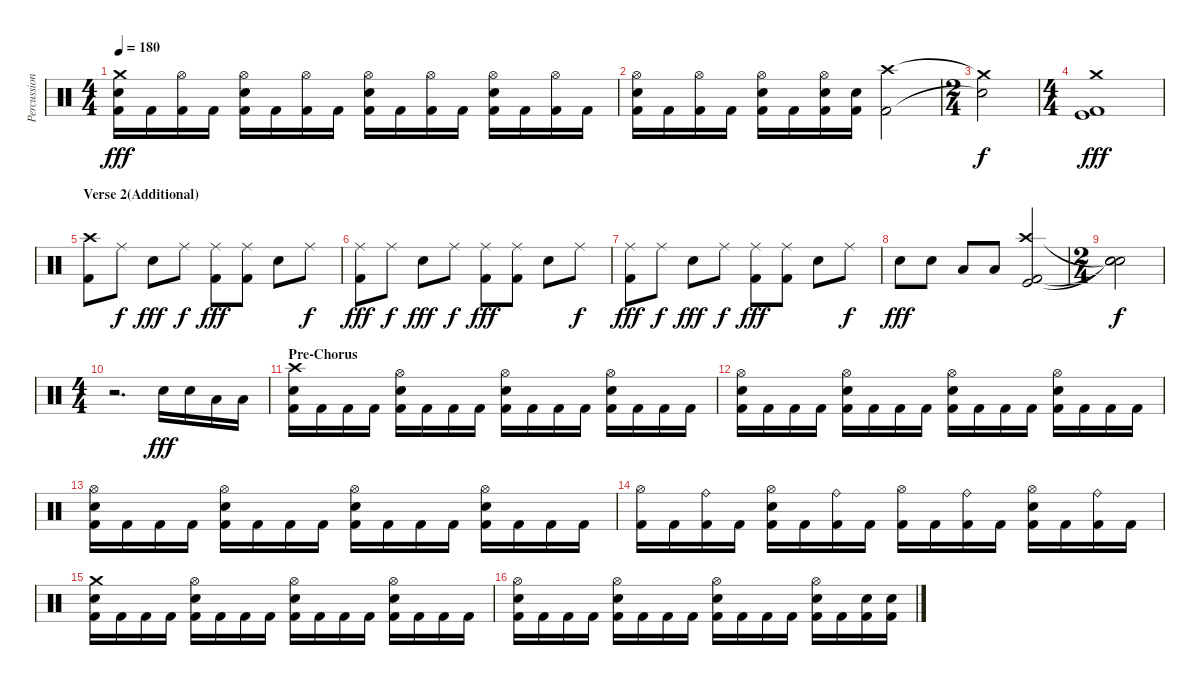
\track ("Percussion" "Percussion") {instrument percussion}
\staff {score}
\articulation defaults
\ts (4 4)
\tempo 180
\clef neutral
\ks c
("Crash medium (hit)" "Snare (hit) 2" "Kick (hit) 2").16{dy fff} "Kick (hit) 2".16 ("Hi-Hat (open)" "Kick (hit) 2").16 "Kick (hit) 2".16 ("Hi-Hat (open)" "Snare (hit) 2" "Kick (hit) 2").16 "Kick (hit) 2".16 ("Hi-Hat (open)" "Kick (hit) 2").16 "Kick (hit) 2".16 ("Hi-Hat (open)" "Snare (hit) 2" "Kick (hit) 2").16 "Kick (hit) 2".16 ("Hi-Hat (open)" "Kick (hit) 2").16 "Kick (hit) 2".16 ("Hi-Hat (open)" "Snare (hit) 2" "Kick (hit) 2").16 "Kick (hit) 2".16 ("Hi-Hat (open)" "Kick (hit) 2").16 "Kick (hit) 2".16 |
("Hi-Hat (open)" "Snare (hit) 2" "Kick (hit) 2").16 "Kick (hit) 2".16 ("Hi-Hat (open)" "Kick (hit) 2").16 "Kick (hit) 2".16 ("Hi-Hat (open)" "Snare (hit) 2" "Kick (hit) 2").16 "Kick (hit) 2".16 ("Hi-Hat (open)" "Snare (hit) 2" "Kick (hit) 2").16 ("Snare (hit) 2" "Kick (hit) 2").16 ("Crash high (hit)" "Kick (hit) 2").2 |
\ts (2 4)
("Crash medium (hit)"{t} "Snare (hit)"{t}).2{dy f} |
\ts (4 4)
("Crash medium (hit)" "Kick (hit)" "Kick (hit) 2").1{dy fff} |
\section ("" "Verse 2(Additional)")
("Crash high (hit)" "Kick (hit) 2").8 "Ride (middle)".8{dy f} "Snare (hit) 2".8{dy fff} "Ride (middle)".8{dy f} ("Ride (middle)" "Kick (hit) 2").8{dy fff} ("Ride (middle)" "Kick (hit) 2").8 "Snare (hit) 2".8 "Ride (middle)".8{dy f} |
("Ride (middle)" "Kick (hit) 2").8{dy fff} "Ride (middle)".8{dy f} "Snare (hit) 2".8{dy fff} "Ride (middle)".8{dy f} ("Ride (middle)" "Kick (hit) 2").8{dy fff} ("Ride (middle)" "Kick (hit) 2").8 "Snare (hit) 2".8 "Ride (middle)".8{dy f} |
("Ride (middle)" "Kick (hit) 2").8{dy fff} "Ride (middle)".8{dy f} "Snare (hit) 2".8{dy fff} "Ride (middle)".8{dy f} ("Ride (middle)" "Kick (hit) 2").8{dy fff} ("Ride (middle)" "Kick (hit) 2").8 "Snare (hit) 2".8 "Ride (middle)".8{dy f} |
"Snare (hit) 2".8{dy fff} "Snare (hit) 2".8 "Low Tom (hit)".8 "Low Tom (hit)".8 ("Crash high (hit)" "Kick (hit)" "Kick (hit) 2").2 |
\ts (2 4)
("Snare (hit)"{t} "Snare (hit)"{t} "Snare (hit)"{t}).2{dy f} |
\ts (4 4)
r.2{d} "Snare (hit) 2".16{dy fff} "Snare (hit) 2".16 "Low Tom (hit)".16 "Low Tom (hit)".16 |
\section ("" "Pre-Chorus")
("Crash high (hit)" "Snare (hit) 2" "Kick (hit) 2").16 "Kick (hit) 2".16 "Kick (hit) 2".16 "Kick (hit) 2".16 ("Hi-Hat (open)" "Snare (hit) 2" "Kick (hit) 2").16 "Kick (hit) 2".16 "Kick (hit) 2".16 "Kick (hit) 2".16 ("Hi-Hat (open)" "Snare (hit) 2" "Kick (hit) 2").16 "Kick (hit) 2".16 "Kick (hit) 2".16 "Kick (hit) 2".16 ("Hi-Hat (open)" "Snare (hit) 2" "Kick (hit) 2").16 "Kick (hit) 2".16 "Kick (hit) 2".16 "Kick (hit) 2".16 |
("Hi-Hat (open)" "Snare (hit) 2" "Kick (hit) 2").16 "Kick (hit) 2".16 "Kick (hit) 2".16 "Kick (hit) 2".16 ("Hi-Hat (open)" "Snare (hit) 2" "Kick (hit) 2").16 "Kick (hit) 2".16 "Kick (hit) 2".16 "Kick (hit) 2".16 ("Hi-Hat (open)" "Snare (hit) 2" "Kick (hit) 2").16 "Kick (hit) 2".16 "Kick (hit) 2".16 "Kick (hit) 2".16 ("Hi-Hat (open)" "Snare (hit) 2" "Kick (hit) 2").16 "Kick (hit) 2".16 "Kick (hit) 2".16 "Kick (hit) 2".16 |
("Hi-Hat (open)" "Snare (hit) 2" "Kick (hit) 2").16 "Kick (hit) 2".16 "Kick (hit) 2".16 "Kick (hit) 2".16 ("Hi-Hat (open)" "Snare (hit) 2" "Kick (hit) 2").16 "Kick (hit) 2".16 "Kick (hit) 2".16 "Kick (hit) 2".16 ("Hi-Hat (open)" "Snare (hit) 2" "Kick (hit) 2").16 "Kick (hit) 2".16 "Kick (hit) 2".16 "Kick (hit) 2".16 ("Hi-Hat (open)" "Snare (hit) 2" "Kick (hit) 2").16 "Kick (hit) 2".16 "Kick (hit) 2".16 "Kick (hit) 2".16 |
("Hi-Hat (open)" "Kick (hit) 2").16 "Kick (hit) 2".16 ("Ride (bell)" "Kick (hit) 2").16 "Kick (hit) 2".16 ("Hi-Hat (open)" "Snare (hit) 2" "Kick (hit) 2").16 "Kick (hit) 2".16 ("Ride (bell)" "Kick (hit) 2").16 "Kick (hit) 2".16 ("Hi-Hat (open)" "Kick (hit) 2").16 "Kick (hit) 2".16 ("Ride (bell)" "Kick (hit) 2").16 "Kick (hit) 2".16 ("Hi-Hat (open)" "Snare (hit) 2" "Kick (hit) 2").16 "Kick (hit) 2".16 ("Ride (bell)" "Kick (hit) 2").16 "Kick (hit) 2".16 |
("Crash medium (hit)" "Snare (hit) 2" "Kick (hit) 2").16 "Kick (hit) 2".16 "Kick (hit) 2".16 "Kick (hit) 2".16 ("Hi-Hat (open)" "Snare (hit) 2" "Kick (hit) 2").16 "Kick (hit) 2".16 "Kick (hit) 2".16 "Kick (hit) 2".16 ("Hi-Hat (open)" "Snare (hit) 2" "Kick (hit) 2").16 "Kick (hit) 2".16 "Kick (hit) 2".16 "Kick (hit) 2".16 ("Hi-Hat (open)" "Snare (hit) 2" "Kick (hit) 2").16 "Kick (hit) 2".16 "Kick (hit) 2".16 "Kick (hit) 2".16 |
("Hi-Hat (open)" "Snare (hit) 2" "Kick (hit) 2").16 "Kick (hit) 2".16 "Kick (hit) 2".16 "Kick (hit) 2".16 ("Hi-Hat (open)" "Snare (hit) 2" "Kick (hit) 2").16 "Kick (hit) 2".16 "Kick (hit) 2".16 "Kick (hit) 2".16 ("Hi-Hat (open)" "Snare (hit) 2" "Kick (hit) 2").16 "Kick (hit) 2".16 "Kick (hit) 2".16 "Kick (hit) 2".16 ("Hi-Hat (open)" "Snare (hit) 2" "Kick (hit) 2").16 "Kick (hit) 2".16 ("Snare (hit) 2" "Kick (hit) 2").16 ("Snare (hit) 2" "Kick (hit) 2").16
